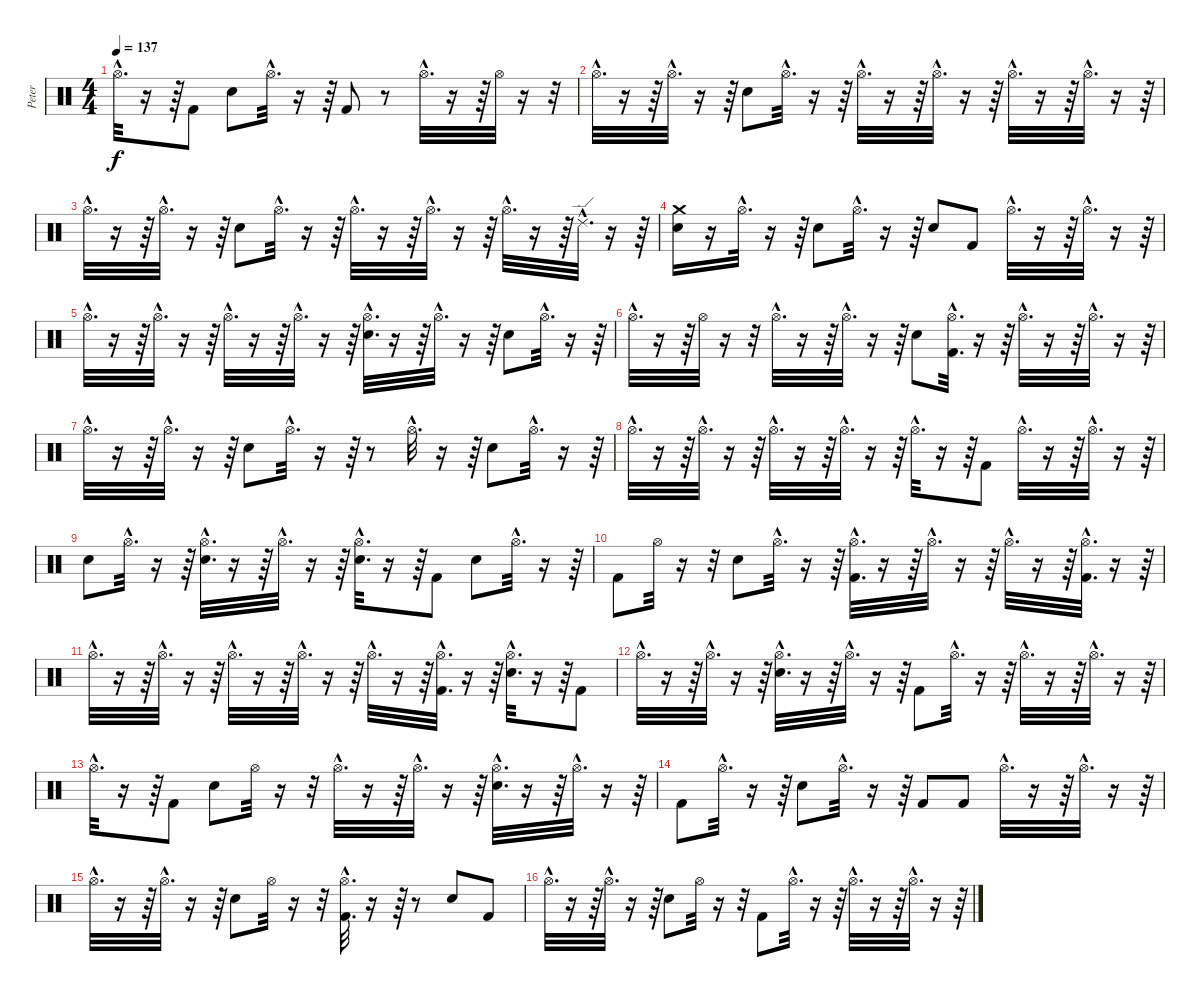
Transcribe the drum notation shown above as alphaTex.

\track ("Peter" "Peter") {instrument percussion}
\staff {score}
\articulation defaults
\ts (4 4)
\tempo 137
\clef neutral
\ks c "Hi-Hat (open)"{hac}.32{d dy f}
r.16 r.64 "Kick (hit) 2".8 "Electric Snare (hit)".8 "Hi-Hat (open)"{hac}.32{d} r.16 r.64 "Kick (hit) 2".8 r.8 "Hi-Hat (open)"{hac}.32{d} r.16 r.64 "Hi-Hat (open)".32 r.16 r.32 |
"Hi-Hat (open)"{hac}.32{d} r.16 r.64 "Hi-Hat (open)"{hac}.32{d} r.16 r.64 "Electric Snare (hit)".8 "Hi-Hat (open)"{hac}.32{d} r.16 r.64 "Hi-Hat (open)"{hac}.32{d} r.16 r.64 "Hi-Hat (open)"{hac}.32{d} r.16 r.64 "Hi-Hat (open)"{hac}.32{d} r.16 r.64 "Hi-Hat (open)"{hac}.32{d} r.16 r.64 |
"Hi-Hat (open)"{hac}.32{d} r.16 r.64 "Hi-Hat (open)"{hac}.32{d} r.16 r.64 "Electric Snare (hit)".8 "Hi-Hat (open)"{hac}.32{d} r.16 r.64 "Hi-Hat (open)"{hac}.32{d} r.16 r.64 "Hi-Hat (open)"{hac}.32{d} r.16 r.64 "Hi-Hat (open)"{hac}.32{d} r.16 r.64 "Ride (edge) 2"{hac}.32{d} r.16 r.64 |
("Electric Snare (hit)" "Crash medium (hit)").16 r.16 "Hi-Hat (open)"{hac}.32{d} r.16 r.64 "Electric Snare (hit)".8 "Hi-Hat (open)"{hac}.32{d} r.16 r.64 "Electric Snare (hit)".8 "Kick (hit) 2".8 "Hi-Hat (open)"{hac}.32{d} r.16 r.64 "Hi-Hat (open)"{hac}.32{d} r.16 r.64 |
"Hi-Hat (open)"{hac}.32{d} r.16 r.64 "Hi-Hat (open)"{hac}.32{d} r.16 r.64 "Hi-Hat (open)"{hac}.32{d} r.16 r.64 "Hi-Hat (open)"{hac}.32{d} r.16 r.64 ("Electric Snare (hit)"{hac} "Hi-Hat (open)"{hac}).32{d} r.16 r.64 "Hi-Hat (open)"{hac}.32{d} r.16 r.64 "Electric Snare (hit)".8 "Hi-Hat (open)"{hac}.32{d} r.16 r.64 |
"Hi-Hat (open)"{hac}.32{d} r.16 r.64 "Hi-Hat (open)".32 r.16 r.32 "Hi-Hat (open)"{hac}.32{d} r.16 r.64 "Hi-Hat (open)"{hac}.32{d} r.16 r.64 "Electric Snare (hit)".8 ("Kick (hit) 2"{hac} "Hi-Hat (open)"{hac}).32{d} r.16 r.64 "Hi-Hat (open)"{hac}.32{d} r.16 r.64 "Hi-Hat (open)"{hac}.32{d} r.16 r.64 |
"Hi-Hat (open)"{hac}.32{d} r.16 r.64 "Hi-Hat (open)"{hac}.32{d} r.16 r.64 "Electric Snare (hit)".8 "Hi-Hat (open)"{hac}.32{d} r.16 r.64 r.8 "Hi-Hat (open)"{hac}.32{d} r.16 r.64 "Electric Snare (hit)".8 "Hi-Hat (open)"{hac}.32{d} r.16 r.64 |
"Hi-Hat (open)"{hac}.32{d} r.16 r.64 "Hi-Hat (open)"{hac}.32{d} r.16 r.64 "Hi-Hat (open)"{hac}.32{d} r.16 r.64 "Hi-Hat (open)"{hac}.32{d} r.16 r.64 "Hi-Hat (open)"{hac}.32{d} r.16 r.64 "Kick (hit) 2".8 "Hi-Hat (open)"{hac}.32{d} r.16 r.64 "Hi-Hat (open)"{hac}.32{d} r.16 r.64 |
"Electric Snare (hit)".8 "Hi-Hat (open)"{hac}.32{d} r.16 r.64 ("Electric Snare (hit)"{hac} "Hi-Hat (open)"{hac}).32{d} r.16 r.64 "Hi-Hat (open)"{hac}.32{d} r.16 r.64 ("Electric Snare (hit)"{hac} "Hi-Hat (open)"{hac}).32{d} r.16 r.64 "Kick (hit) 2".8 "Electric Snare (hit)".8 "Hi-Hat (open)"{hac}.32{d} r.16 r.64 |
"Kick (hit) 2".8 "Hi-Hat (open)".32 r.16 r.32 "Electric Snare (hit)".8 "Hi-Hat (open)"{hac}.32{d} r.16 r.64 ("Kick (hit) 2"{hac} "Hi-Hat (open)"{hac}).32{d} r.16 r.64 "Hi-Hat (open)"{hac}.32{d} r.16 r.64 "Hi-Hat (open)"{hac}.32{d} r.16 r.64 ("Kick (hit) 2"{hac} "Hi-Hat (open)"{hac}).32{d} r.16 r.64 |
"Hi-Hat (open)"{hac}.32{d} r.16 r.64 "Hi-Hat (open)"{hac}.32{d} r.16 r.64 "Hi-Hat (open)"{hac}.32{d} r.16 r.64 "Hi-Hat (open)"{hac}.32{d} r.16 r.64 "Hi-Hat (open)"{hac}.32{d} r.16 r.64 ("Kick (hit) 2"{hac} "Hi-Hat (open)"{hac}).32{d} r.16 r.64 ("Electric Snare (hit)"{hac} "Hi-Hat (open)"{hac}).32{d} r.16 r.64 "Kick (hit) 2".8 |
"Hi-Hat (open)"{hac}.32{d} r.16 r.64 "Hi-Hat (open)"{hac}.32{d} r.16 r.64 ("Electric Snare (hit)"{hac} "Hi-Hat (open)"{hac}).32{d} r.16 r.64 "Hi-Hat (open)"{hac}.32{d} r.16 r.64 "Kick (hit) 2".8 "Hi-Hat (open)"{hac}.32{d} r.16 r.64 "Hi-Hat (open)"{hac}.32{d} r.16 r.64 "Hi-Hat (open)"{hac}.32{d} r.16 r.64 |
"Hi-Hat (open)"{hac}.32{d} r.16 r.64 "Kick (hit) 2".8 "Electric Snare (hit)".8 "Hi-Hat (open)".32 r.16 r.32 "Hi-Hat (open)"{hac}.32{d} r.16 r.64 "Hi-Hat (open)"{hac}.32{d} r.16 r.64 ("Electric Snare (hit)"{hac} "Hi-Hat (open)"{hac}).32{d} r.16 r.64 "Hi-Hat (open)"{hac}.32{d} r.16 r.64 |
"Kick (hit) 2".8 "Hi-Hat (open)"{hac}.32{d} r.16 r.64 "Electric Snare (hit)".8 "Hi-Hat (open)"{hac}.32{d} r.16 r.64 "Kick (hit) 2".8 "Kick (hit) 2".8 "Hi-Hat (open)"{hac}.32{d} r.16 r.64 "Hi-Hat (open)"{hac}.32{d} r.16 r.64 |
"Hi-Hat (open)"{hac}.32{d} r.16 r.64 "Hi-Hat (open)"{hac}.32{d} r.16 r.64 "Electric Snare (hit)".8 "Hi-Hat (open)".32 r.16 r.32 ("Kick (hit) 2"{hac} "Hi-Hat (open)"{hac}).32{d} r.16 r.64 r.8 "Electric Snare (hit)".8 "Kick (hit) 2".8 |
"Hi-Hat (open)"{hac}.32{d} r.16 r.64 "Hi-Hat (open)"{hac}.32{d} r.16 r.64 "Electric Snare (hit)".8 "Hi-Hat (open)".32 r.16 r.32 "Kick (hit) 2".8 "Hi-Hat (open)"{hac}.32{d} r.16 r.64 "Hi-Hat (open)"{hac}.32{d} r.16 r.64 "Hi-Hat (open)"{hac}.32{d} r.16 r.64
